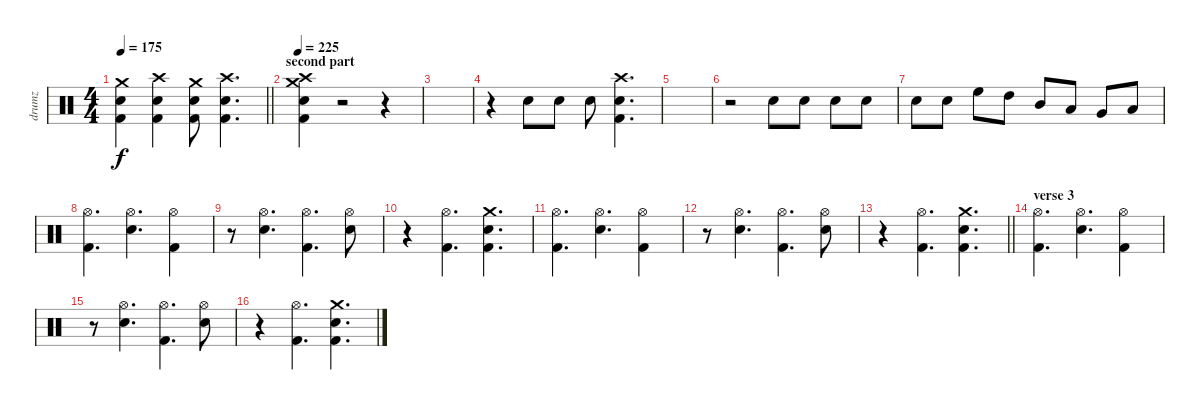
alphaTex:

\track ("drumz" "drumz") {instrument percussion}
\staff {score}
\articulation defaults
\ts (4 4)
\tempo 175
\clef neutral
\barLineRight lightlight
\ks c
("Crash medium (hit)" "Electric Snare (hit)" "Kick (hit) 2").4{dy f} ("Crash high (hit)" "Electric Snare (hit)" "Kick (hit) 2").4 ("Crash medium (hit)" "Electric Snare (hit)" "Kick (hit) 2").8 ("Crash high (hit)" "Electric Snare (hit)" "Kick (hit) 2").4{d} |
\section ("" "second part")
\tempo 225
("Crash medium (hit)" "Crash high (hit)" "Electric Snare (hit)" "Kick (hit) 2").4 r.2 r.4 |
|
r.4 "Electric Snare (hit)".8 "Electric Snare (hit)".8 "Electric Snare (hit)".8 ("Crash high (hit)" "Electric Snare (hit)" "Kick (hit) 2").4{d} |
|
r.2 "Electric Snare (hit)".8 "Electric Snare (hit)".8 "Electric Snare (hit)".8 "Electric Snare (hit)".8 |
"Electric Snare (hit)".8 "Electric Snare (hit)".8 "High Floor Tom (hit)".8 "High Tom (hit)".8 "Mid Tom (hit)".8 "Low Tom (hit)".8 "Very Low Tom (hit)".8 "Low Floor Tom (hit)".8 |
("Hi-Hat (open)" "Kick (hit) 2").4{d} ("Hi-Hat (open)" "Electric Snare (hit)").4{d} ("Hi-Hat (open)" "Kick (hit) 2").4 |
r.8 ("Hi-Hat (open)" "Electric Snare (hit)").4{d} ("Hi-Hat (open)" "Kick (hit) 2").4{d} ("Hi-Hat (open)" "Electric Snare (hit)").8 |
r.4 ("Hi-Hat (open)" "Kick (hit) 2").4{d} ("Crash medium (hit)" "Electric Snare (hit)" "Kick (hit) 2").4{d} |
("Hi-Hat (open)" "Kick (hit) 2").4{d} ("Hi-Hat (open)" "Electric Snare (hit)").4{d} ("Hi-Hat (open)" "Kick (hit) 2").4 |
r.8 ("Hi-Hat (open)" "Electric Snare (hit)").4{d} ("Hi-Hat (open)" "Kick (hit) 2").4{d} ("Hi-Hat (open)" "Electric Snare (hit)").8 |
\barLineRight lightlight
r.4 ("Hi-Hat (open)" "Kick (hit) 2").4{d} ("Crash medium (hit)" "Electric Snare (hit)" "Kick (hit) 2").4{d} |
\section ("" "verse 3")
("Hi-Hat (open)" "Kick (hit) 2").4{d} ("Hi-Hat (open)" "Electric Snare (hit)").4{d} ("Hi-Hat (open)" "Kick (hit) 2").4 |
r.8 ("Hi-Hat (open)" "Electric Snare (hit)").4{d} ("Hi-Hat (open)" "Kick (hit) 2").4{d} ("Hi-Hat (open)" "Electric Snare (hit)").8 |
r.4 ("Hi-Hat (open)" "Kick (hit) 2").4{d} ("Crash medium (hit)" "Electric Snare (hit)" "Kick (hit) 2").4{d}
